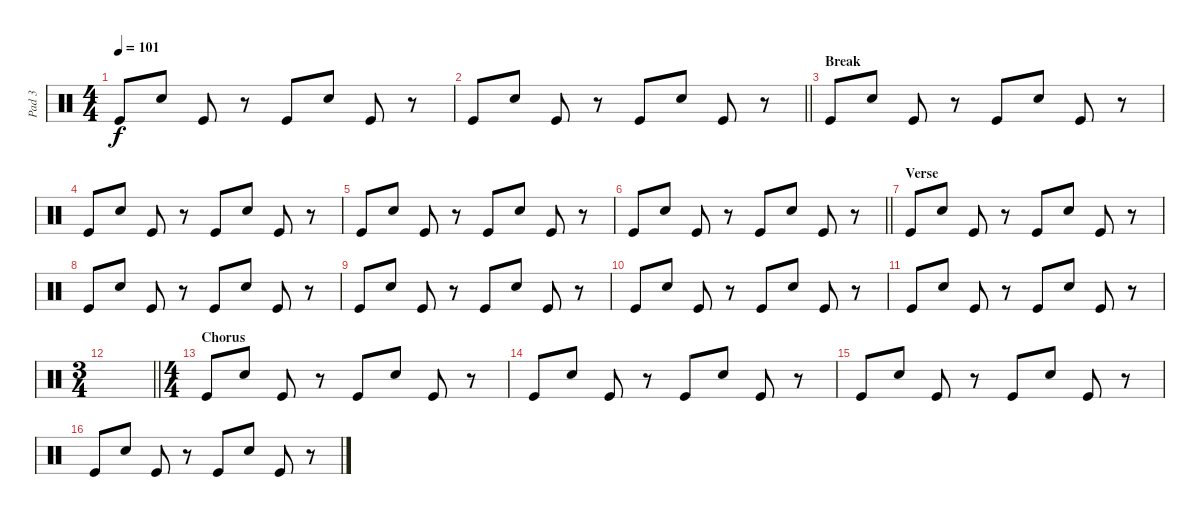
\track ("Pad 3" "Pad 3") {instrument percussion}
\staff {score}
\articulation defaults
\ts (4 4)
\tempo 101
\clef neutral
\ks c "Kick (hit)".8{dy f} "Electric Snare (hit)".8 "Kick (hit)".8
r.8 "Kick (hit)".8 "Electric Snare (hit)".8 "Kick (hit)".8 r.8 |
\barLineRight lightlight "Kick (hit)".8 "Electric Snare (hit)".8 "Kick (hit)".8
r.8 "Kick (hit)".8 "Electric Snare (hit)".8 "Kick (hit)".8 r.8 |
\section ("" "Break")
"Kick (hit)".8 "Electric Snare (hit)".8 "Kick (hit)".8 r.8 "Kick (hit)".8 "Electric Snare (hit)".8 "Kick (hit)".8 r.8 |
"Kick (hit)".8 "Electric Snare (hit)".8 "Kick (hit)".8 r.8 "Kick (hit)".8 "Electric Snare (hit)".8 "Kick (hit)".8 r.8 |
"Kick (hit)".8 "Electric Snare (hit)".8 "Kick (hit)".8 r.8 "Kick (hit)".8 "Electric Snare (hit)".8 "Kick (hit)".8 r.8 |
\barLineRight lightlight "Kick (hit)".8 "Electric Snare (hit)".8 "Kick (hit)".8
r.8 "Kick (hit)".8 "Electric Snare (hit)".8 "Kick (hit)".8 r.8 |
\section ("" "Verse")
"Kick (hit)".8 "Electric Snare (hit)".8 "Kick (hit)".8 r.8 "Kick (hit)".8 "Electric Snare (hit)".8 "Kick (hit)".8 r.8 |
"Kick (hit)".8 "Electric Snare (hit)".8 "Kick (hit)".8 r.8 "Kick (hit)".8 "Electric Snare (hit)".8 "Kick (hit)".8 r.8 |
"Kick (hit)".8 "Electric Snare (hit)".8 "Kick (hit)".8 r.8 "Kick (hit)".8 "Electric Snare (hit)".8 "Kick (hit)".8 r.8 |
"Kick (hit)".8 "Electric Snare (hit)".8 "Kick (hit)".8 r.8 "Kick (hit)".8 "Electric Snare (hit)".8 "Kick (hit)".8 r.8 |
"Kick (hit)".8 "Electric Snare (hit)".8 "Kick (hit)".8 r.8 "Kick (hit)".8 "Electric Snare (hit)".8 "Kick (hit)".8 r.8 |
\ts (3 4)
\barLineRight lightlight
|
\ts (4 4)
\section ("" "Chorus")
"Kick (hit)".8 "Electric Snare (hit)".8 "Kick (hit)".8 r.8 "Kick (hit)".8 "Electric Snare (hit)".8 "Kick (hit)".8 r.8 |
"Kick (hit)".8 "Electric Snare (hit)".8 "Kick (hit)".8 r.8 "Kick (hit)".8 "Electric Snare (hit)".8 "Kick (hit)".8 r.8 |
"Kick (hit)".8 "Electric Snare (hit)".8 "Kick (hit)".8 r.8 "Kick (hit)".8 "Electric Snare (hit)".8 "Kick (hit)".8 r.8 |
"Kick (hit)".8 "Electric Snare (hit)".8 "Kick (hit)".8 r.8 "Kick (hit)".8 "Electric Snare (hit)".8 "Kick (hit)".8 r.8
